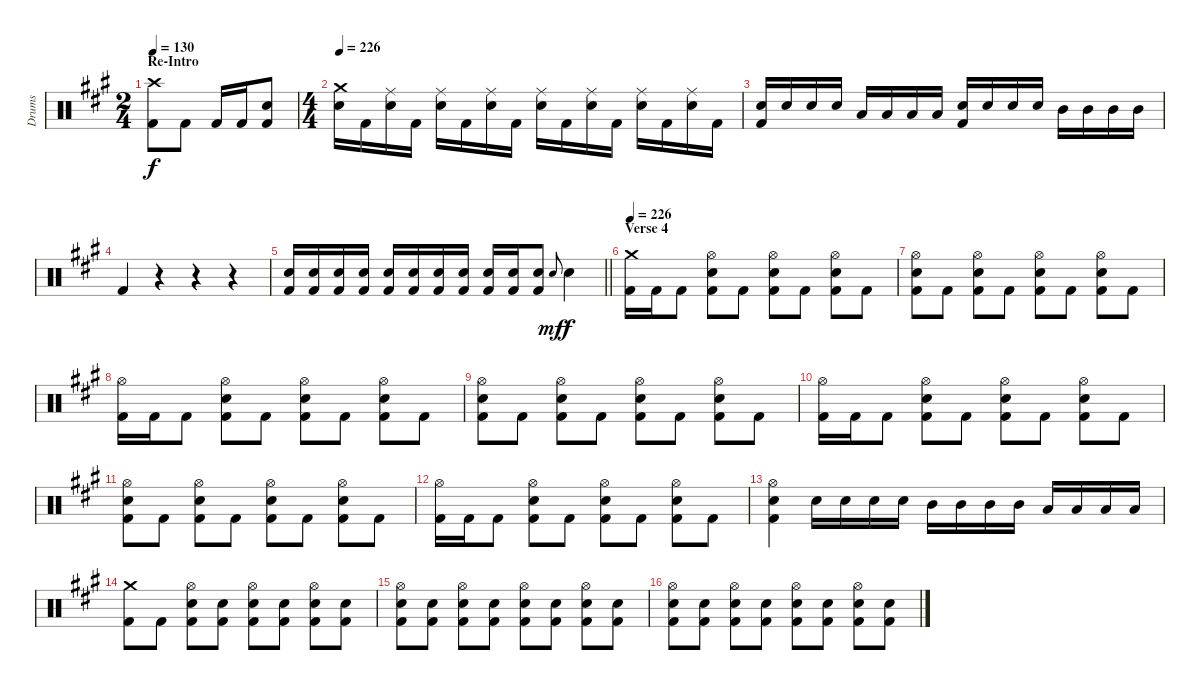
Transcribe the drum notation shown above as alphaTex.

\track ("Drums" "Drums") {instrument percussion}
\staff {score}
\articulation defaults
\ts (2 4)
\section ("" "Re-Intro")
\tempo 130
\clef neutral
\ks a
("Crash high (hit)" "Kick (hit) 2").8{dy f} "Kick (hit) 2".8 "Kick (hit) 2".16 "Kick (hit) 2".16 ("Snare (hit) 2" "Kick (hit) 2").8 |
\ts (4 4)
\tempo 226
("Crash medium (hit)" "Snare (hit) 2").16 "Kick (hit) 2".16 ("Ride (middle)" "Snare (hit) 2").16 "Kick (hit) 2".16 ("Ride (middle)" "Snare (hit) 2").16 "Kick (hit) 2".16 ("Ride (middle)" "Snare (hit) 2").16 "Kick (hit) 2".16 ("Ride (middle)" "Snare (hit) 2").16 "Kick (hit) 2".16 ("Ride (middle)" "Snare (hit) 2").16 "Kick (hit) 2".16 ("Ride (middle)" "Snare (hit) 2").16 "Kick (hit) 2".16 ("Ride (middle)" "Snare (hit) 2").16 "Kick (hit) 2".16 |
("Snare (hit) 2" "Kick (hit) 2").16 "Snare (hit) 2".16 "Snare (hit) 2".16 "Snare (hit) 2".16 "Low Tom (hit)".16 "Low Tom (hit)".16 "Low Tom (hit)".16 "Low Tom (hit)".16 ("Snare (hit) 2" "Kick (hit) 2").16 "Snare (hit) 2".16 "Snare (hit) 2".16 "Snare (hit) 2".16 "Mid Tom (hit)".16 "Mid Tom (hit)".16 "Mid Tom (hit)".16 "Mid Tom (hit)".16 |
"Kick (hit) 2".4 r.4 r.4 r.4 |
\barLineRight lightlight
("Snare (hit) 2" "Kick (hit) 2").16 ("Snare (hit) 2" "Kick (hit) 2").16 ("Snare (hit) 2" "Kick (hit) 2").16 ("Snare (hit) 2" "Kick (hit) 2").16 ("Snare (hit) 2" "Kick (hit) 2").16 ("Snare (hit) 2" "Kick (hit) 2").16 ("Snare (hit) 2" "Kick (hit) 2").16 ("Snare (hit) 2" "Kick (hit) 2").16 ("Snare (hit) 2" "Kick (hit) 2").16 ("Snare (hit) 2" "Kick (hit) 2").16 ("Snare (hit) 2" "Kick (hit) 2").8 "Snare (hit)".8{gr onbeat dy mf} "Snare (hit) 2".4{dy f} |
\section ("" "Verse 4")
\tempo 226
("Crash medium (hit)" "Kick (hit) 2").16 "Kick (hit) 2".16 "Kick (hit) 2".8 ("Hi-Hat (open)" "Snare (hit) 2" "Kick (hit) 2").8 "Kick (hit) 2".8 ("Hi-Hat (open)" "Snare (hit) 2" "Kick (hit) 2").8 "Kick (hit) 2".8 ("Hi-Hat (open)" "Snare (hit) 2" "Kick (hit) 2").8 "Kick (hit) 2".8 |
("Hi-Hat (open)" "Snare (hit) 2" "Kick (hit) 2").8 "Kick (hit) 2".8 ("Hi-Hat (open)" "Snare (hit) 2" "Kick (hit) 2").8 "Kick (hit) 2".8 ("Hi-Hat (open)" "Snare (hit) 2" "Kick (hit) 2").8 "Kick (hit) 2".8 ("Hi-Hat (open)" "Snare (hit) 2" "Kick (hit) 2").8 "Kick (hit) 2".8 |
("Hi-Hat (open)" "Kick (hit) 2").16 "Kick (hit) 2".16 "Kick (hit) 2".8 ("Hi-Hat (open)" "Snare (hit) 2" "Kick (hit) 2").8 "Kick (hit) 2".8 ("Hi-Hat (open)" "Snare (hit) 2" "Kick (hit) 2").8 "Kick (hit) 2".8 ("Hi-Hat (open)" "Snare (hit) 2" "Kick (hit) 2").8 "Kick (hit) 2".8 |
("Hi-Hat (open)" "Snare (hit) 2" "Kick (hit) 2").8 "Kick (hit) 2".8 ("Hi-Hat (open)" "Snare (hit) 2" "Kick (hit) 2").8 "Kick (hit) 2".8 ("Hi-Hat (open)" "Snare (hit) 2" "Kick (hit) 2").8 "Kick (hit) 2".8 ("Hi-Hat (open)" "Snare (hit) 2" "Kick (hit) 2").8 "Kick (hit) 2".8 |
("Hi-Hat (open)" "Kick (hit) 2").16 "Kick (hit) 2".16 "Kick (hit) 2".8 ("Hi-Hat (open)" "Snare (hit) 2" "Kick (hit) 2").8 "Kick (hit) 2".8 ("Hi-Hat (open)" "Snare (hit) 2" "Kick (hit) 2").8 "Kick (hit) 2".8 ("Hi-Hat (open)" "Snare (hit) 2" "Kick (hit) 2").8 "Kick (hit) 2".8 |
("Hi-Hat (open)" "Snare (hit) 2" "Kick (hit) 2").8 "Kick (hit) 2".8 ("Hi-Hat (open)" "Snare (hit) 2" "Kick (hit) 2").8 "Kick (hit) 2".8 ("Hi-Hat (open)" "Snare (hit) 2" "Kick (hit) 2").8 "Kick (hit) 2".8 ("Hi-Hat (open)" "Snare (hit) 2" "Kick (hit) 2").8 "Kick (hit) 2".8 |
("Hi-Hat (open)" "Kick (hit) 2").16 "Kick (hit) 2".16 "Kick (hit) 2".8 ("Hi-Hat (open)" "Snare (hit) 2" "Kick (hit) 2").8 "Kick (hit) 2".8 ("Hi-Hat (open)" "Snare (hit) 2" "Kick (hit) 2").8 "Kick (hit) 2".8 ("Hi-Hat (open)" "Snare (hit) 2" "Kick (hit) 2").8 "Kick (hit) 2".8 |
("Hi-Hat (open)" "Snare (hit) 2" "Kick (hit) 2").4 "Snare (hit) 2".16 "Snare (hit) 2".16 "Snare (hit) 2".16 "Snare (hit) 2".16 "Mid Tom (hit)".16 "Mid Tom (hit)".16 "Mid Tom (hit)".16 "Mid Tom (hit)".16 "Low Tom (hit)".16 "Low Tom (hit)".16 "Low Tom (hit)".16 "Low Tom (hit)".16 |
("Crash medium (hit)" "Kick (hit) 2").8 "Kick (hit) 2".8 ("Hi-Hat (open)" "Snare (hit) 2" "Kick (hit) 2").8 ("Snare (hit) 2" "Kick (hit) 2").8 ("Hi-Hat (open)" "Snare (hit) 2" "Kick (hit) 2").8 ("Snare (hit) 2" "Kick (hit) 2").8 ("Hi-Hat (open)" "Snare (hit) 2" "Kick (hit) 2").8 ("Snare (hit) 2" "Kick (hit) 2").8 |
("Hi-Hat (open)" "Snare (hit) 2" "Kick (hit) 2").8 ("Snare (hit) 2" "Kick (hit) 2").8 ("Hi-Hat (open)" "Snare (hit) 2" "Kick (hit) 2").8 ("Snare (hit) 2" "Kick (hit) 2").8 ("Hi-Hat (open)" "Snare (hit) 2" "Kick (hit) 2").8 ("Snare (hit) 2" "Kick (hit) 2").8 ("Hi-Hat (open)" "Snare (hit) 2" "Kick (hit) 2").8 ("Snare (hit) 2" "Kick (hit) 2").8 |
("Hi-Hat (open)" "Snare (hit) 2" "Kick (hit) 2").8 ("Snare (hit) 2" "Kick (hit) 2").8 ("Hi-Hat (open)" "Snare (hit) 2" "Kick (hit) 2").8 ("Snare (hit) 2" "Kick (hit) 2").8 ("Hi-Hat (open)" "Snare (hit) 2" "Kick (hit) 2").8 ("Snare (hit) 2" "Kick (hit) 2").8 ("Hi-Hat (open)" "Snare (hit) 2" "Kick (hit) 2").8 ("Snare (hit) 2" "Kick (hit) 2").8
